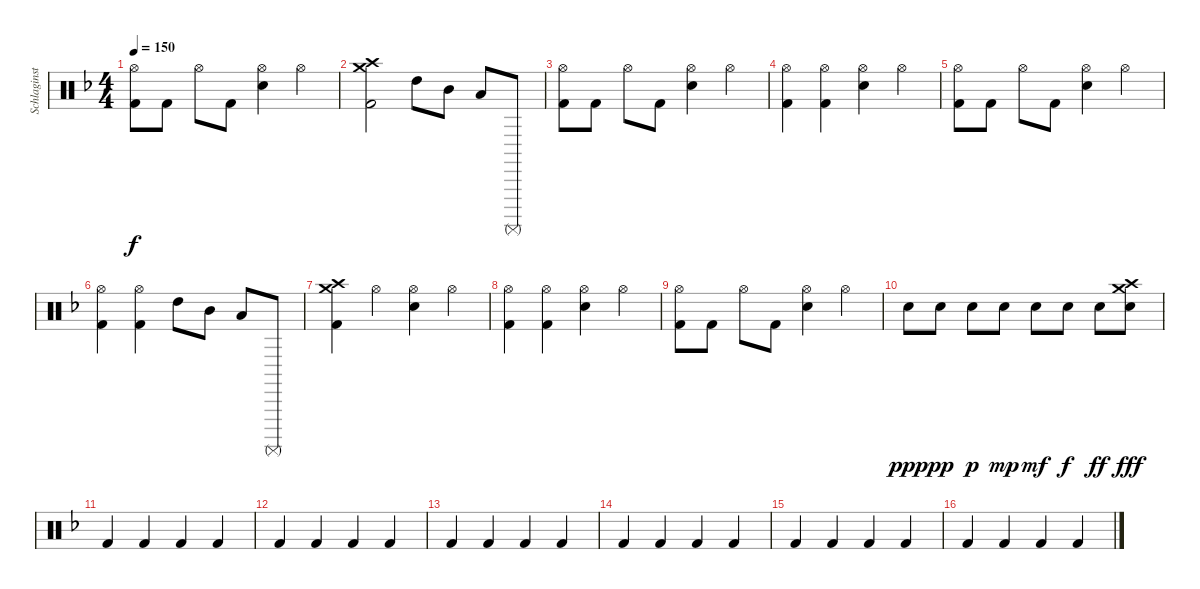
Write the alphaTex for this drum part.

\track ("Schlaginstrumente - Auswahl" "Schlaginst") {instrument percussion}
\staff {score}
\articulation defaults
\ts (4 4)
\tempo 150
\clef neutral
\ks f
("Hi-Hat (open)" "Kick (hit) 2").8{dy f} "Kick (hit) 2".8 "Hi-Hat (open)".8 "Kick (hit) 2".8 ("Hi-Hat (open)" "Snare (hit) 2").4 "Hi-Hat (open)".4 |
("Crash medium (hit)" "Crash high (hit)" "Kick (hit) 2").2 "High Tom (hit)".8 "Mid Tom (hit)".8 "Low Tom (hit)".8 "Surdo (mute)".8 |
("Hi-Hat (open)" "Kick (hit) 2").8 "Kick (hit) 2".8 "Hi-Hat (open)".8 "Kick (hit) 2".8 ("Hi-Hat (open)" "Snare (hit) 2").4 "Hi-Hat (open)".4 |
("Kick (hit) 2" "Hi-Hat (open)").4 ("Kick (hit) 2" "Hi-Hat (open)").4 ("Hi-Hat (open)" "Snare (hit) 2").4 "Hi-Hat (open)".4 |
("Hi-Hat (open)" "Kick (hit) 2").8 "Kick (hit) 2".8 "Hi-Hat (open)".8 "Kick (hit) 2".8 ("Hi-Hat (open)" "Snare (hit) 2").4 "Hi-Hat (open)".4 |
("Kick (hit) 2" "Hi-Hat (open)").4 ("Kick (hit) 2" "Hi-Hat (open)").4 "High Tom (hit)".8 "Mid Tom (hit)".8 "Low Tom (hit)".8 "Surdo (mute)".8 |
("Kick (hit) 2" "Crash medium (hit)" "Crash high (hit)").4 "Hi-Hat (open)".4 ("Hi-Hat (open)" "Snare (hit) 2").4 "Hi-Hat (open)".4 |
("Kick (hit) 2" "Hi-Hat (open)").4 ("Kick (hit) 2" "Hi-Hat (open)").4 ("Hi-Hat (open)" "Snare (hit) 2").4 "Hi-Hat (open)".4 |
("Hi-Hat (open)" "Kick (hit) 2").8 "Kick (hit) 2".8 "Hi-Hat (open)".8 "Kick (hit) 2".8 ("Hi-Hat (open)" "Snare (hit) 2").4 "Hi-Hat (open)".4 |
"Snare (hit) 2".8{dy ppp} "Snare (hit) 2".8{dy pp} "Snare (hit) 2".8{dy p} "Snare (hit) 2".8{dy mp} "Snare (hit) 2".8{dy mf} "Snare (hit) 2".8{dy f} "Snare (hit) 2".8{dy ff} ("Snare (hit) 2" "Crash medium (hit)" "Crash high (hit)").8{dy fff} |
"Kick (hit) 2".4 "Kick (hit) 2".4 "Kick (hit) 2".4 "Kick (hit) 2".4 |
"Kick (hit) 2".4 "Kick (hit) 2".4 "Kick (hit) 2".4 "Kick (hit) 2".4 |
"Kick (hit) 2".4 "Kick (hit) 2".4 "Kick (hit) 2".4 "Kick (hit) 2".4 |
"Kick (hit) 2".4 "Kick (hit) 2".4 "Kick (hit) 2".4 "Kick (hit) 2".4 |
"Kick (hit) 2".4 "Kick (hit) 2".4 "Kick (hit) 2".4 "Kick (hit) 2".4 |
"Kick (hit) 2".4 "Kick (hit) 2".4 "Kick (hit) 2".4 "Kick (hit) 2".4
